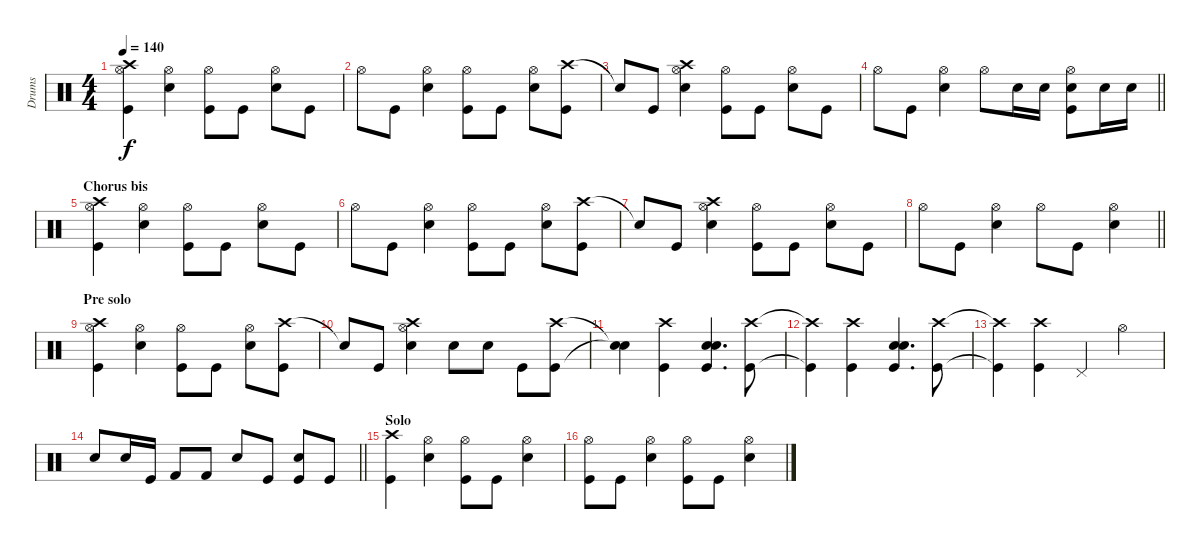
\track ("Drums" "Drums") {instrument percussion}
\staff {score}
\articulation defaults
\ts (4 4)
\tempo 140
\clef neutral
\ks c
("Crash high (hit)" "Hi-Hat (open)" "Kick (hit)").4{dy f} ("Hi-Hat (open)" "Electric Snare (hit)").4 ("Hi-Hat (open)" "Kick (hit)").8 "Kick (hit)".8 ("Hi-Hat (open)" "Electric Snare (hit)").8 "Kick (hit)".8 |
"Hi-Hat (open)".8 "Kick (hit)".8 ("Hi-Hat (open)" "Electric Snare (hit)").4 ("Hi-Hat (open)" "Kick (hit)").8 "Kick (hit)".8 ("Hi-Hat (open)" "Electric Snare (hit)").8 ("Crash high (hit)" "Kick (hit)").8 |
"Snare (hit)"{t}.8 "Kick (hit)".8 ("Crash high (hit)" "Hi-Hat (open)" "Electric Snare (hit)").4 ("Hi-Hat (open)" "Kick (hit)").8 "Kick (hit)".8 ("Hi-Hat (open)" "Electric Snare (hit)").8 "Kick (hit)".8 |
\barLineRight lightlight "Hi-Hat (open)".8 "Kick (hit)".8
("Hi-Hat (open)" "Electric Snare (hit)").4 "Hi-Hat (open)".8 "Electric Snare (hit)".16 "Electric Snare (hit)".16 ("Hi-Hat (open)" "Electric Snare (hit)" "Kick (hit)").8 "Electric Snare (hit)".16 "Electric Snare (hit)".16 |
\section ("" "Chorus bis")
("Crash high (hit)" "Hi-Hat (open)" "Kick (hit)").4 ("Hi-Hat (open)" "Electric Snare (hit)").4 ("Hi-Hat (open)" "Kick (hit)").8 "Kick (hit)".8 ("Hi-Hat (open)" "Electric Snare (hit)").8 "Kick (hit)".8 |
"Hi-Hat (open)".8 "Kick (hit)".8 ("Hi-Hat (open)" "Electric Snare (hit)").4 ("Hi-Hat (open)" "Kick (hit)").8 "Kick (hit)".8 ("Hi-Hat (open)" "Electric Snare (hit)").8 ("Crash high (hit)" "Kick (hit)").8 |
"Snare (hit)"{t}.8 "Kick (hit)".8 ("Crash high (hit)" "Hi-Hat (open)" "Electric Snare (hit)").4 ("Hi-Hat (open)" "Kick (hit)").8 "Kick (hit)".8 ("Hi-Hat (open)" "Electric Snare (hit)").8 "Kick (hit)".8 |
\barLineRight lightlight "Hi-Hat (open)".8 "Kick (hit)".8
("Hi-Hat (open)" "Electric Snare (hit)").4 "Hi-Hat (open)".8 "Kick (hit)".8 ("Hi-Hat (open)" "Electric Snare (hit)").4 |
\section ("" "Pre solo")
("Crash high (hit)" "Hi-Hat (open)" "Kick (hit)").4 ("Hi-Hat (open)" "Electric Snare (hit)").4 ("Hi-Hat (open)" "Kick (hit)").8 "Kick (hit)".8 ("Hi-Hat (open)" "Electric Snare (hit)").8 ("Crash high (hit)" "Kick (hit)").8 |
"Snare (hit)"{t}.8 "Kick (hit)".8 ("Crash high (hit)" "Hi-Hat (open)" "Electric Snare (hit)").4 "Electric Snare (hit)".8 "Snare (hit) 2".8 "Kick (hit)".8 ("Crash high (hit)" "Kick (hit)").8 |
("Snare (hit)"{t} "Snare (hit)"{t}).4 ("Crash high (hit)" "Kick (hit)").4 ("Snare (hit) 2" "Electric Snare (hit)" "Kick (hit)").4{d} ("Crash high (hit)" "Kick (hit)").8 |
("Crash high (hit)"{t} "Kick (hit)"{t}).4 ("Crash high (hit)" "Kick (hit)").4 ("Snare (hit) 2" "Electric Snare (hit)" "Kick (hit)").4{d} ("Crash high (hit)" "Kick (hit)").8 |
("Crash high (hit)"{t} "Kick (hit)"{t}).4 ("Crash high (hit)" "Kick (hit)").4 "Pedal Hi-Hat (hit)".4 "Hi-Hat (open)".4 |
\barLineRight lightlight "Electric Snare (hit)".8 "Snare (hit) 2".16 "Kick (hit)".16 "Kick (hit) 2".8 "Kick (hit) 2".8 "Electric Snare (hit)".8 "Kick (hit)".8
("Electric Snare (hit)" "Kick (hit)").8 "Kick (hit)".8 |
\section ("" "Solo")
("Crash high (hit)" "Kick (hit)").4 ("Hi-Hat (open)" "Electric Snare (hit)").4 ("Hi-Hat (open)" "Kick (hit)").8 "Kick (hit)".8 ("Hi-Hat (open)" "Electric Snare (hit)").4 |
("Hi-Hat (open)" "Kick (hit)").8 "Kick (hit)".8 ("Hi-Hat (open)" "Electric Snare (hit)").4 ("Hi-Hat (open)" "Kick (hit)").8 "Kick (hit)".8 ("Hi-Hat (open)" "Electric Snare (hit)").4
